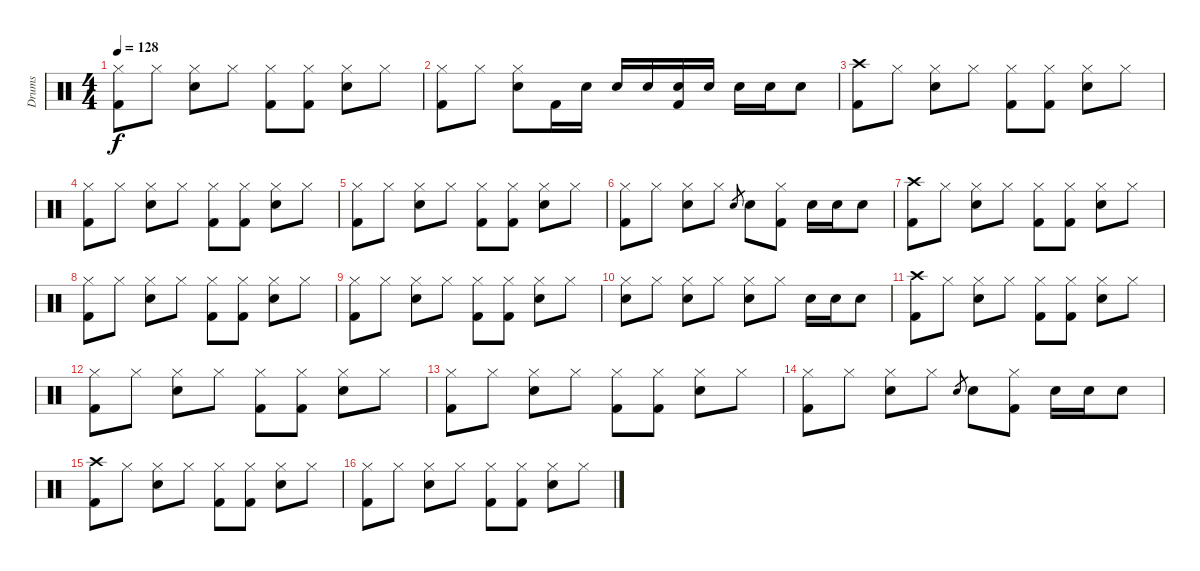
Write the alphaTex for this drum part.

\track ("Drums" "Drums") {instrument percussion}
\staff {score}
\articulation defaults
\ts (4 4)
\tempo 128
\clef neutral
\ks c
("Hi-Hat (closed)" "Kick (hit) 2").8{dy f} "Hi-Hat (closed)".8 ("Hi-Hat (closed)" "Snare (hit) 2").8 "Hi-Hat (closed)".8 ("Hi-Hat (closed)" "Kick (hit) 2").8 ("Hi-Hat (closed)" "Kick (hit) 2").8 ("Hi-Hat (closed)" "Snare (hit) 2").8 "Hi-Hat (closed)".8 |
("Hi-Hat (closed)" "Kick (hit) 2").8 "Hi-Hat (closed)".8 ("Hi-Hat (closed)" "Snare (hit) 2").8 "Kick (hit) 2".16 "Snare (hit) 2".16 "Snare (hit) 2".16 "Snare (hit) 2".16 ("Snare (hit) 2" "Kick (hit) 2").16 "Snare (hit) 2".16 "Snare (hit) 2".16 "Snare (hit) 2".16 "Snare (hit) 2".8 |
("Crash high (hit)" "Kick (hit) 2").8 "Hi-Hat (closed)".8 ("Hi-Hat (closed)" "Snare (hit) 2").8 "Hi-Hat (closed)".8 ("Hi-Hat (closed)" "Kick (hit) 2").8 ("Hi-Hat (closed)" "Kick (hit) 2").8 ("Hi-Hat (closed)" "Snare (hit) 2").8 "Hi-Hat (closed)".8 |
("Hi-Hat (closed)" "Kick (hit) 2").8 "Hi-Hat (closed)".8 ("Hi-Hat (closed)" "Snare (hit) 2").8 "Hi-Hat (closed)".8 ("Hi-Hat (closed)" "Kick (hit) 2").8 ("Hi-Hat (closed)" "Kick (hit) 2").8 ("Hi-Hat (closed)" "Snare (hit) 2").8 "Hi-Hat (closed)".8 |
("Hi-Hat (closed)" "Kick (hit) 2").8 "Hi-Hat (closed)".8 ("Hi-Hat (closed)" "Snare (hit) 2").8 "Hi-Hat (closed)".8 ("Hi-Hat (closed)" "Kick (hit) 2").8 ("Hi-Hat (closed)" "Kick (hit) 2").8 ("Hi-Hat (closed)" "Snare (hit) 2").8 "Hi-Hat (closed)".8 |
("Hi-Hat (closed)" "Kick (hit) 2").8 "Hi-Hat (closed)".8 ("Hi-Hat (closed)" "Snare (hit) 2").8 "Hi-Hat (closed)".8 "Snare (hit) 2".8{gr} "Snare (hit) 2".8 ("Hi-Hat (closed)" "Kick (hit) 2").8 "Snare (hit) 2".16 "Snare (hit) 2".16 "Snare (hit) 2".8 |
("Crash high (hit)" "Kick (hit) 2").8 "Hi-Hat (closed)".8 ("Hi-Hat (closed)" "Snare (hit) 2").8 "Hi-Hat (closed)".8 ("Hi-Hat (closed)" "Kick (hit) 2").8 ("Hi-Hat (closed)" "Kick (hit) 2").8 ("Hi-Hat (closed)" "Snare (hit) 2").8 "Hi-Hat (closed)".8 |
("Hi-Hat (closed)" "Kick (hit) 2").8 "Hi-Hat (closed)".8 ("Hi-Hat (closed)" "Snare (hit) 2").8 "Hi-Hat (closed)".8 ("Hi-Hat (closed)" "Kick (hit) 2").8 ("Hi-Hat (closed)" "Kick (hit) 2").8 ("Hi-Hat (closed)" "Snare (hit) 2").8 "Hi-Hat (closed)".8 |
("Hi-Hat (closed)" "Kick (hit) 2").8 "Hi-Hat (closed)".8 ("Hi-Hat (closed)" "Snare (hit) 2").8 "Hi-Hat (closed)".8 ("Hi-Hat (closed)" "Kick (hit) 2").8 ("Hi-Hat (closed)" "Kick (hit) 2").8 ("Hi-Hat (closed)" "Snare (hit) 2").8 "Hi-Hat (closed)".8 |
("Hi-Hat (closed)" "Snare (hit) 2").8 "Hi-Hat (closed)".8 ("Hi-Hat (closed)" "Snare (hit) 2").8 "Hi-Hat (closed)".8 ("Hi-Hat (closed)" "Snare (hit) 2").8 "Hi-Hat (closed)".8 "Snare (hit) 2".16 "Snare (hit) 2".16 "Snare (hit) 2".8 |
("Crash high (hit)" "Kick (hit) 2").8 "Hi-Hat (closed)".8 ("Hi-Hat (closed)" "Snare (hit) 2").8 "Hi-Hat (closed)".8 ("Hi-Hat (closed)" "Kick (hit) 2").8 ("Hi-Hat (closed)" "Kick (hit) 2").8 ("Hi-Hat (closed)" "Snare (hit) 2").8 "Hi-Hat (closed)".8 |
("Hi-Hat (closed)" "Kick (hit) 2").8 "Hi-Hat (closed)".8 ("Hi-Hat (closed)" "Snare (hit) 2").8 "Hi-Hat (closed)".8 ("Hi-Hat (closed)" "Kick (hit) 2").8 ("Hi-Hat (closed)" "Kick (hit) 2").8 ("Hi-Hat (closed)" "Snare (hit) 2").8 "Hi-Hat (closed)".8 |
("Hi-Hat (closed)" "Kick (hit) 2").8 "Hi-Hat (closed)".8 ("Hi-Hat (closed)" "Snare (hit) 2").8 "Hi-Hat (closed)".8 ("Hi-Hat (closed)" "Kick (hit) 2").8 ("Hi-Hat (closed)" "Kick (hit) 2").8 ("Hi-Hat (closed)" "Snare (hit) 2").8 "Hi-Hat (closed)".8 |
("Hi-Hat (closed)" "Kick (hit) 2").8 "Hi-Hat (closed)".8 ("Hi-Hat (closed)" "Snare (hit) 2").8 "Hi-Hat (closed)".8 "Snare (hit) 2".8{gr} "Snare (hit) 2".8 ("Hi-Hat (closed)" "Kick (hit) 2").8 "Snare (hit) 2".16 "Snare (hit) 2".16 "Snare (hit) 2".8 |
("Crash high (hit)" "Kick (hit) 2").8 "Hi-Hat (closed)".8 ("Hi-Hat (closed)" "Snare (hit) 2").8 "Hi-Hat (closed)".8 ("Hi-Hat (closed)" "Kick (hit) 2").8 ("Hi-Hat (closed)" "Kick (hit) 2").8 ("Hi-Hat (closed)" "Snare (hit) 2").8 "Hi-Hat (closed)".8 |
("Hi-Hat (closed)" "Kick (hit) 2").8 "Hi-Hat (closed)".8 ("Hi-Hat (closed)" "Snare (hit) 2").8 "Hi-Hat (closed)".8 ("Hi-Hat (closed)" "Kick (hit) 2").8 ("Hi-Hat (closed)" "Kick (hit) 2").8 ("Hi-Hat (closed)" "Snare (hit) 2").8 "Hi-Hat (closed)".8
